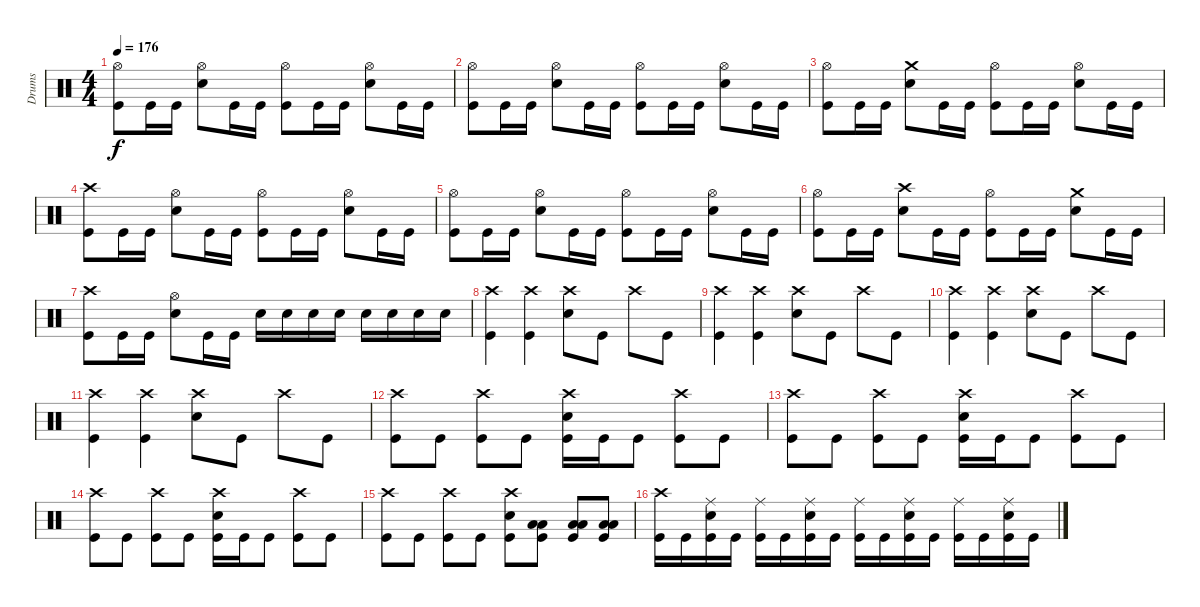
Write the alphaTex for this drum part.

\track ("Drums" "Drums") {instrument percussion}
\staff {score}
\articulation defaults
\ts (4 4)
\tempo 176
\clef neutral
\ks c
("Hi-Hat (open)" "Kick (hit)").8{dy f} "Kick (hit)".16 "Kick (hit)".16 ("Snare (hit) 2" "Hi-Hat (open)").8 "Kick (hit)".16 "Kick (hit)".16 ("Kick (hit)" "Hi-Hat (open)").8 "Kick (hit)".16 "Kick (hit)".16 ("Snare (hit) 2" "Hi-Hat (open)").8 "Kick (hit)".16 "Kick (hit)".16 |
("Hi-Hat (open)" "Kick (hit)").8 "Kick (hit)".16 "Kick (hit)".16 ("Snare (hit) 2" "Hi-Hat (open)").8 "Kick (hit)".16 "Kick (hit)".16 ("Kick (hit)" "Hi-Hat (open)").8 "Kick (hit)".16 "Kick (hit)".16 ("Snare (hit) 2" "Hi-Hat (open)").8 "Kick (hit)".16 "Kick (hit)".16 |
("Hi-Hat (open)" "Kick (hit)").8 "Kick (hit)".16 "Kick (hit)".16 ("Snare (hit) 2" "Crash medium (hit)").8 "Kick (hit)".16 "Kick (hit)".16 ("Kick (hit)" "Hi-Hat (open)").8 "Kick (hit)".16 "Kick (hit)".16 ("Snare (hit) 2" "Hi-Hat (open)").8 "Kick (hit)".16 "Kick (hit)".16 |
("Crash high (hit)" "Kick (hit)").8 "Kick (hit)".16 "Kick (hit)".16 ("Snare (hit) 2" "Hi-Hat (open)").8 "Kick (hit)".16 "Kick (hit)".16 ("Kick (hit)" "Hi-Hat (open)").8 "Kick (hit)".16 "Kick (hit)".16 ("Snare (hit) 2" "Hi-Hat (open)").8 "Kick (hit)".16 "Kick (hit)".16 |
("Hi-Hat (open)" "Kick (hit)").8 "Kick (hit)".16 "Kick (hit)".16 ("Snare (hit) 2" "Hi-Hat (open)").8 "Kick (hit)".16 "Kick (hit)".16 ("Kick (hit)" "Hi-Hat (open)").8 "Kick (hit)".16 "Kick (hit)".16 ("Snare (hit) 2" "Hi-Hat (open)").8 "Kick (hit)".16 "Kick (hit)".16 |
("Hi-Hat (open)" "Kick (hit)").8 "Kick (hit)".16 "Kick (hit)".16 ("Snare (hit) 2" "Crash high (hit)").8 "Kick (hit)".16 "Kick (hit)".16 ("Kick (hit)" "Hi-Hat (open)").8 "Kick (hit)".16 "Kick (hit)".16 ("Snare (hit) 2" "Crash medium (hit)").8 "Kick (hit)".16 "Kick (hit)".16 |
("Crash high (hit)" "Kick (hit)").8 "Kick (hit)".16 "Kick (hit)".16 ("Snare (hit) 2" "Hi-Hat (open)").8 "Kick (hit)".16 "Kick (hit)".16 "Snare (hit) 2".16 "Snare (hit) 2".16 "Snare (hit) 2".16 "Snare (hit) 2".16 "Snare (hit) 2".16 "Snare (hit) 2".16 "Snare (hit) 2".16 "Snare (hit) 2".16 |
("Kick (hit)" "Crash high (hit)").4 ("Kick (hit)" "Crash high (hit)").4 ("Snare (hit) 2" "Crash high (hit)").8 "Kick (hit)".8 "Crash high (hit)".8 "Kick (hit)".8 |
("Kick (hit)" "Crash high (hit)").4 ("Kick (hit)" "Crash high (hit)").4 ("Snare (hit) 2" "Crash high (hit)").8 "Kick (hit)".8 "Crash high (hit)".8 "Kick (hit)".8 |
("Kick (hit)" "Crash high (hit)").4 ("Kick (hit)" "Crash high (hit)").4 ("Snare (hit) 2" "Crash high (hit)").8 "Kick (hit)".8 "Crash high (hit)".8 "Kick (hit)".8 |
("Kick (hit)" "Crash high (hit)").4 ("Kick (hit)" "Crash high (hit)").4 ("Snare (hit) 2" "Crash high (hit)").8 "Kick (hit)".8 "Crash high (hit)".8 "Kick (hit)".8 |
("Kick (hit)" "Crash high (hit)").8 "Kick (hit)".8 ("Kick (hit)" "Crash high (hit)").8 "Kick (hit)".8 ("Kick (hit)" "Crash high (hit)" "Snare (hit) 2").16 "Kick (hit)".16 "Kick (hit)".8 ("Kick (hit)" "Crash high (hit)").8 "Kick (hit)".8 |
("Kick (hit)" "Crash high (hit)").8 "Kick (hit)".8 ("Kick (hit)" "Crash high (hit)").8 "Kick (hit)".8 ("Kick (hit)" "Crash high (hit)" "Snare (hit) 2").16 "Kick (hit)".16 "Kick (hit)".8 ("Kick (hit)" "Crash high (hit)").8 "Kick (hit)".8 |
("Kick (hit)" "Crash high (hit)").8 "Kick (hit)".8 ("Kick (hit)" "Crash high (hit)").8 "Kick (hit)".8 ("Kick (hit)" "Crash high (hit)" "Snare (hit) 2").16 "Kick (hit)".16 "Kick (hit)".8 ("Kick (hit)" "Crash high (hit)").8 "Kick (hit)".8 |
("Kick (hit)" "Crash high (hit)").8 "Kick (hit)".8 ("Kick (hit)" "Crash high (hit)").8 "Kick (hit)".8 ("Kick (hit)" "Crash high (hit)" "Snare (hit) 2").8 ("Kick (hit)" "Low Tom (hit)" "Low Floor Tom (hit)").8 ("Kick (hit)" "Low Floor Tom (hit)" "Low Tom (hit)").8 ("Kick (hit)" "Low Tom (hit)" "Low Floor Tom (hit)").8 |
("Kick (hit)" "Crash high (hit)").16 "Kick (hit)".16 ("Kick (hit)" "Snare (hit) 2" "Ride (middle)").16 "Kick (hit)".16 ("Kick (hit)" "Ride (middle)").16 "Kick (hit)".16 ("Kick (hit)" "Snare (hit) 2" "Ride (middle)").16 "Kick (hit)".16 ("Kick (hit)" "Ride (middle)").16 "Kick (hit)".16 ("Kick (hit)" "Snare (hit) 2" "Ride (middle)").16 "Kick (hit)".16 ("Kick (hit)" "Ride (middle)").16 "Kick (hit)".16 ("Kick (hit)" "Snare (hit) 2" "Ride (middle)").16 "Kick (hit)".16
